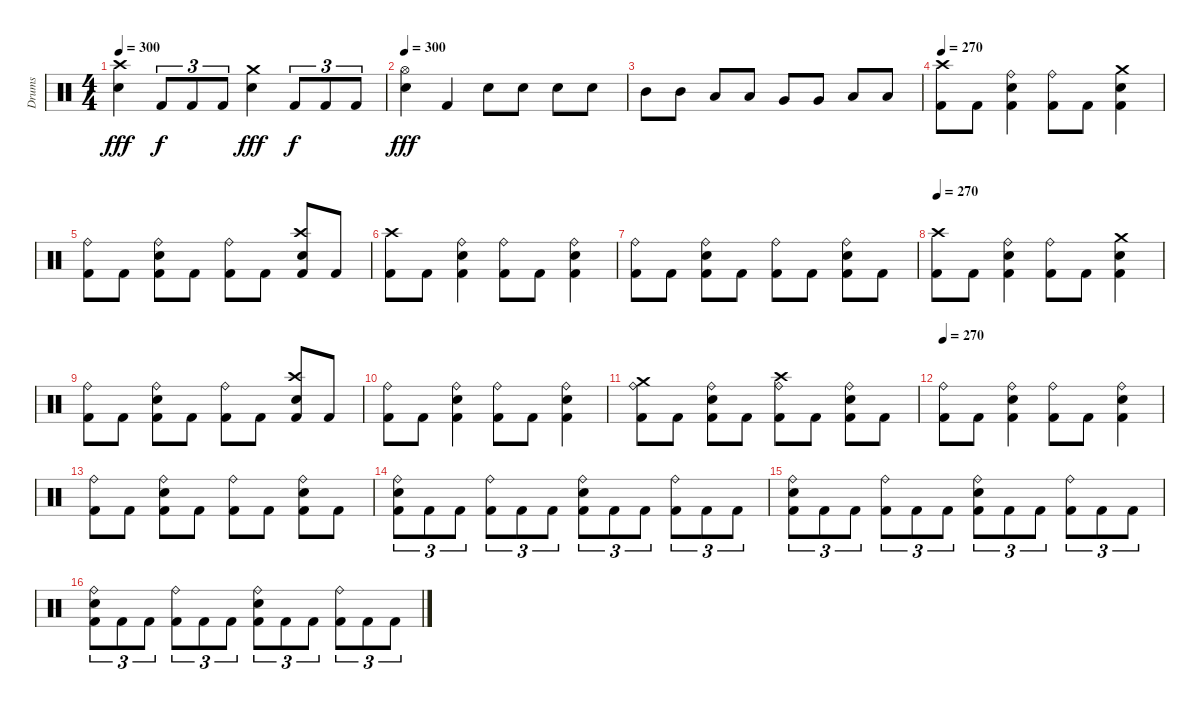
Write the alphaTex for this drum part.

\track ("Drums" "Drums") {instrument percussion}
\staff {score}
\articulation defaults
\ts (4 4)
\tempo 300
\clef neutral
\ks c
("Snare (hit) 2" "Crash high (hit)").4{dy fff} "Kick (hit) 2".8{tu (3 2) dy f} "Kick (hit) 2".8{tu (3 2)} "Kick (hit) 2".8{tu (3 2)} ("Snare (hit) 2" "Crash medium (hit)").4{dy fff} "Kick (hit) 2".8{tu (3 2) dy f} "Kick (hit) 2".8{tu (3 2)} "Kick (hit) 2".8{tu (3 2)} |
\tempo 300
("Snare (hit) 2" "Hi-Hat (open)").4{dy fff} "Kick (hit) 2".4 "Snare (hit) 2".8 "Snare (hit) 2".8 "Snare (hit) 2".8 "Snare (hit) 2".8 |
"Mid Tom (hit)".8 "Mid Tom (hit)".8 "Low Tom (hit)".8 "Low Tom (hit)".8 "Very Low Tom (hit)".8 "Very Low Tom (hit)".8 "Low Floor Tom (hit)".8 "Low Floor Tom (hit)".8 |
\tempo 270
("Kick (hit) 2" "Crash high (hit)").8 "Kick (hit) 2".8 ("Snare (hit) 2" "Ride (bell)" "Kick (hit) 2").4 ("Kick (hit) 2" "Ride (bell)").8 "Kick (hit) 2".8 ("Snare (hit) 2" "Crash medium (hit)" "Kick (hit) 2").4 |
("Kick (hit) 2" "Ride (bell)").8 "Kick (hit) 2".8 ("Snare (hit) 2" "Ride (bell)" "Kick (hit) 2").8 "Kick (hit) 2".8 ("Kick (hit) 2" "Ride (bell)").8 "Kick (hit) 2".8 ("Snare (hit) 2" "Crash high (hit)" "Kick (hit) 2").8 "Kick (hit) 2".8 |
("Kick (hit) 2" "Crash high (hit)").8 "Kick (hit) 2".8 ("Snare (hit) 2" "Ride (bell)" "Kick (hit) 2").4 ("Kick (hit) 2" "Ride (bell)").8 "Kick (hit) 2".8 ("Snare (hit) 2" "Ride (bell)" "Kick (hit) 2").4 |
("Kick (hit) 2" "Ride (bell)").8 "Kick (hit) 2".8 ("Snare (hit) 2" "Ride (bell)" "Kick (hit) 2").8 "Kick (hit) 2".8 ("Kick (hit) 2" "Ride (bell)").8 "Kick (hit) 2".8 ("Snare (hit) 2" "Ride (bell)" "Kick (hit) 2").8 "Kick (hit) 2".8 |
\tempo 270
("Kick (hit) 2" "Crash high (hit)").8 "Kick (hit) 2".8 ("Snare (hit) 2" "Ride (bell)" "Kick (hit) 2").4 ("Kick (hit) 2" "Ride (bell)").8 "Kick (hit) 2".8 ("Snare (hit) 2" "Crash medium (hit)" "Kick (hit) 2").4 |
("Kick (hit) 2" "Ride (bell)").8 "Kick (hit) 2".8 ("Snare (hit) 2" "Ride (bell)" "Kick (hit) 2").8 "Kick (hit) 2".8 ("Kick (hit) 2" "Ride (bell)").8 "Kick (hit) 2".8 ("Snare (hit) 2" "Crash high (hit)" "Kick (hit) 2").8 "Kick (hit) 2".8 |
("Kick (hit) 2" "Ride (bell)").8 "Kick (hit) 2".8 ("Snare (hit) 2" "Ride (bell)" "Kick (hit) 2").4 ("Kick (hit) 2" "Ride (bell)").8 "Kick (hit) 2".8 ("Snare (hit) 2" "Ride (bell)" "Kick (hit) 2").4 |
("Kick (hit) 2" "Ride (bell)" "Crash medium (hit)").8 "Kick (hit) 2".8 ("Snare (hit) 2" "Ride (bell)" "Kick (hit) 2").8 "Kick (hit) 2".8 ("Kick (hit) 2" "Ride (bell)" "Crash high (hit)").8 "Kick (hit) 2".8 ("Snare (hit) 2" "Ride (bell)" "Kick (hit) 2").8 "Kick (hit) 2".8 |
\tempo 270
("Kick (hit) 2" "Ride (bell)").8 "Kick (hit) 2".8 ("Snare (hit) 2" "Ride (bell)" "Kick (hit) 2").4 ("Kick (hit) 2" "Ride (bell)").8 "Kick (hit) 2".8 ("Snare (hit) 2" "Ride (bell)" "Kick (hit) 2").4 |
("Kick (hit) 2" "Ride (bell)").8 "Kick (hit) 2".8 ("Snare (hit) 2" "Ride (bell)" "Kick (hit) 2").8 "Kick (hit) 2".8 ("Kick (hit) 2" "Ride (bell)").8 "Kick (hit) 2".8 ("Snare (hit) 2" "Ride (bell)" "Kick (hit) 2").8 "Kick (hit) 2".8 |
("Kick (hit) 2" "Snare (hit) 2" "Ride (bell)").8{tu (3 2)} "Kick (hit) 2".8{tu (3 2)} "Kick (hit) 2".8{tu (3 2)} ("Kick (hit) 2" "Ride (bell)").8{tu (3 2)} "Kick (hit) 2".8{tu (3 2)} "Kick (hit) 2".8{tu (3 2)} ("Kick (hit) 2" "Snare (hit) 2" "Ride (bell)").8{tu (3 2)} "Kick (hit) 2".8{tu (3 2)} "Kick (hit) 2".8{tu (3 2)} ("Kick (hit) 2" "Ride (bell)").8{tu (3 2)} "Kick (hit) 2".8{tu (3 2)} "Kick (hit) 2".8{tu (3 2)} |
("Kick (hit) 2" "Snare (hit) 2" "Ride (bell)").8{tu (3 2)} "Kick (hit) 2".8{tu (3 2)} "Kick (hit) 2".8{tu (3 2)} ("Kick (hit) 2" "Ride (bell)").8{tu (3 2)} "Kick (hit) 2".8{tu (3 2)} "Kick (hit) 2".8{tu (3 2)} ("Kick (hit) 2" "Snare (hit) 2" "Ride (bell)").8{tu (3 2)} "Kick (hit) 2".8{tu (3 2)} "Kick (hit) 2".8{tu (3 2)} ("Kick (hit) 2" "Ride (bell)").8{tu (3 2)} "Kick (hit) 2".8{tu (3 2)} "Kick (hit) 2".8{tu (3 2)} |
("Kick (hit) 2" "Snare (hit) 2" "Ride (bell)").8{tu (3 2)} "Kick (hit) 2".8{tu (3 2)} "Kick (hit) 2".8{tu (3 2)} ("Kick (hit) 2" "Ride (bell)").8{tu (3 2)} "Kick (hit) 2".8{tu (3 2)} "Kick (hit) 2".8{tu (3 2)} ("Kick (hit) 2" "Snare (hit) 2" "Ride (bell)").8{tu (3 2)} "Kick (hit) 2".8{tu (3 2)} "Kick (hit) 2".8{tu (3 2)} ("Kick (hit) 2" "Ride (bell)").8{tu (3 2)} "Kick (hit) 2".8{tu (3 2)} "Kick (hit) 2".8{tu (3 2)}
